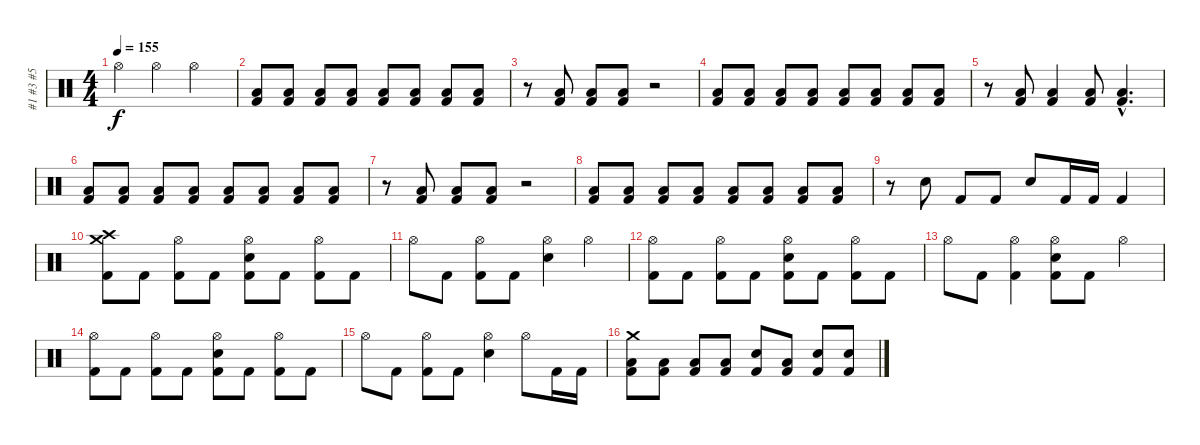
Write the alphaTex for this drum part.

\track ("#1 #3 #5" "#1 #3 #5") {instrument percussion}
\staff {score}
\articulation defaults
\ts (4 4)
\tempo 155
\clef neutral
\ks c "Hi-Hat (open)".4{dy f} "Hi-Hat (open)".4 "Hi-Hat (open)".2
|
("Low Floor Tom (hit)" "Kick (hit) 2").8 ("Low Floor Tom (hit)" "Kick (hit) 2").8 ("Low Floor Tom (hit)" "Kick (hit) 2").8 ("Low Floor Tom (hit)" "Kick (hit) 2").8 ("Low Floor Tom (hit)" "Kick (hit) 2").8 ("Low Floor Tom (hit)" "Kick (hit) 2").8 ("Low Floor Tom (hit)" "Kick (hit) 2").8 ("Low Floor Tom (hit)" "Kick (hit) 2").8 |
r.8 ("Low Floor Tom (hit)" "Kick (hit) 2").8 ("Low Floor Tom (hit)" "Kick (hit) 2").8 ("Low Floor Tom (hit)" "Kick (hit) 2").8 r.2 |
("Low Floor Tom (hit)" "Kick (hit) 2").8 ("Low Floor Tom (hit)" "Kick (hit) 2").8 ("Low Floor Tom (hit)" "Kick (hit) 2").8 ("Low Floor Tom (hit)" "Kick (hit) 2").8 ("Low Floor Tom (hit)" "Kick (hit) 2").8 ("Low Floor Tom (hit)" "Kick (hit) 2").8 ("Low Floor Tom (hit)" "Kick (hit) 2").8 ("Low Floor Tom (hit)" "Kick (hit) 2").8 |
r.8 ("Low Floor Tom (hit)" "Kick (hit) 2").8 ("Low Floor Tom (hit)" "Kick (hit) 2").4 ("Low Floor Tom (hit)" "Kick (hit) 2").8 ("Low Floor Tom (hit)"{hac} "Kick (hit) 2"{hac}).4{d} |
("Low Floor Tom (hit)" "Kick (hit) 2").8 ("Low Floor Tom (hit)" "Kick (hit) 2").8 ("Low Floor Tom (hit)" "Kick (hit) 2").8 ("Low Floor Tom (hit)" "Kick (hit) 2").8 ("Low Floor Tom (hit)" "Kick (hit) 2").8 ("Low Floor Tom (hit)" "Kick (hit) 2").8 ("Low Floor Tom (hit)" "Kick (hit) 2").8 ("Low Floor Tom (hit)" "Kick (hit) 2").8 |
r.8 ("Low Floor Tom (hit)" "Kick (hit) 2").8 ("Low Floor Tom (hit)" "Kick (hit) 2").8 ("Low Floor Tom (hit)" "Kick (hit) 2").8 r.2 |
("Low Floor Tom (hit)" "Kick (hit) 2").8 ("Low Floor Tom (hit)" "Kick (hit) 2").8 ("Low Floor Tom (hit)" "Kick (hit) 2").8 ("Low Floor Tom (hit)" "Kick (hit) 2").8 ("Low Floor Tom (hit)" "Kick (hit) 2").8 ("Low Floor Tom (hit)" "Kick (hit) 2").8 ("Low Floor Tom (hit)" "Kick (hit) 2").8 ("Low Floor Tom (hit)" "Kick (hit) 2").8 |
r.8 "Electric Snare (hit)".8 "Kick (hit) 2".8 "Kick (hit) 2".8 "Electric Snare (hit)".8 "Kick (hit) 2".16 "Kick (hit) 2".16 "Kick (hit) 2".4 |
("Crash medium (hit)" "Crash high (hit)" "Kick (hit) 2").8 "Kick (hit) 2".8 ("Hi-Hat (open)" "Kick (hit) 2").8 "Kick (hit) 2".8 ("Hi-Hat (open)" "Electric Snare (hit)" "Kick (hit) 2").8 "Kick (hit) 2".8 ("Hi-Hat (open)" "Kick (hit) 2").8 "Kick (hit) 2".8 |
"Hi-Hat (open)".8 "Kick (hit) 2".8 ("Hi-Hat (open)" "Kick (hit) 2").8 "Kick (hit) 2".8 ("Hi-Hat (open)" "Electric Snare (hit)").4 "Hi-Hat (open)".4 |
("Hi-Hat (open)" "Kick (hit) 2").8 "Kick (hit) 2".8 ("Hi-Hat (open)" "Kick (hit) 2").8 "Kick (hit) 2".8 ("Hi-Hat (open)" "Electric Snare (hit)" "Kick (hit) 2").8 "Kick (hit) 2".8 ("Hi-Hat (open)" "Kick (hit) 2").8 "Kick (hit) 2".8 |
"Hi-Hat (open)".8 "Kick (hit) 2".8 ("Hi-Hat (open)" "Kick (hit) 2").4 ("Hi-Hat (open)" "Electric Snare (hit)" "Kick (hit) 2").8 "Kick (hit) 2".8 "Hi-Hat (open)".4 |
("Hi-Hat (open)" "Kick (hit) 2").8 "Kick (hit) 2".8 ("Hi-Hat (open)" "Kick (hit) 2").8 "Kick (hit) 2".8 ("Hi-Hat (open)" "Electric Snare (hit)" "Kick (hit) 2").8 "Kick (hit) 2".8 ("Hi-Hat (open)" "Kick (hit) 2").8 "Kick (hit) 2".8 |
"Hi-Hat (open)".8 "Kick (hit) 2".8 ("Hi-Hat (open)" "Kick (hit) 2").8 "Kick (hit) 2".8 ("Hi-Hat (open)" "Electric Snare (hit)").4 "Hi-Hat (open)".8 "Kick (hit) 2".16 "Kick (hit) 2".16 |
("Crash medium (hit)" "Low Floor Tom (hit)" "Kick (hit) 2").8 ("Low Floor Tom (hit)" "Kick (hit) 2").8 ("Low Floor Tom (hit)" "Kick (hit) 2").8 ("Low Floor Tom (hit)" "Kick (hit) 2").8 ("Electric Snare (hit)" "Kick (hit) 2").8 ("Low Floor Tom (hit)" "Kick (hit) 2").8 ("Electric Snare (hit)" "Kick (hit) 2").8 ("Electric Snare (hit)" "Kick (hit) 2").8
